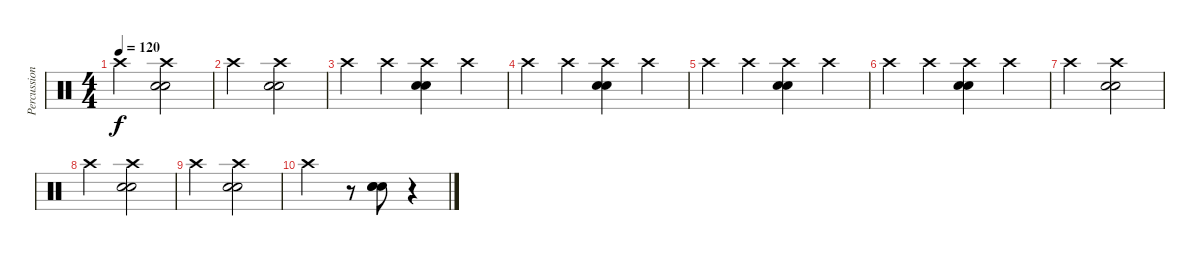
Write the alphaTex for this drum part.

\track ("Percussion" "Percussion") {instrument percussion}
\staff {score}
\articulation defaults
\ts (4 4)
\tempo 120
\clef neutral
\ks c "Crash high (hit)".2{dy f}
("Crash high (hit)" "Electric Snare (hit)" "Electric Snare (hit)").2 |
"Crash high (hit)".2 ("Crash high (hit)" "Electric Snare (hit)" "Electric Snare (hit)").2 |
"Crash high (hit)".4 "Crash high (hit)".4 ("Electric Snare (hit)" "Crash high (hit)" "Electric Snare (hit)").4 "Crash high (hit)".4 |
"Crash high (hit)".4 "Crash high (hit)".4 ("Electric Snare (hit)" "Crash high (hit)" "Electric Snare (hit)").4 "Crash high (hit)".4 |
"Crash high (hit)".4 "Crash high (hit)".4 ("Electric Snare (hit)" "Crash high (hit)" "Electric Snare (hit)").4 "Crash high (hit)".4 |
"Crash high (hit)".4 "Crash high (hit)".4 ("Electric Snare (hit)" "Crash high (hit)" "Electric Snare (hit)").4 "Crash high (hit)".4 |
"Crash high (hit)".2 ("Electric Snare (hit)" "Crash high (hit)" "Electric Snare (hit)").2 |
"Crash high (hit)".2 ("Electric Snare (hit)" "Crash high (hit)" "Electric Snare (hit)").2 |
"Crash high (hit)".2 ("Electric Snare (hit)" "Crash high (hit)" "Electric Snare (hit)").2 |
"Crash high (hit)".2 r.8 ("Electric Snare (hit)" "Electric Snare (hit)" "Electric Snare (hit)").8 r.4
